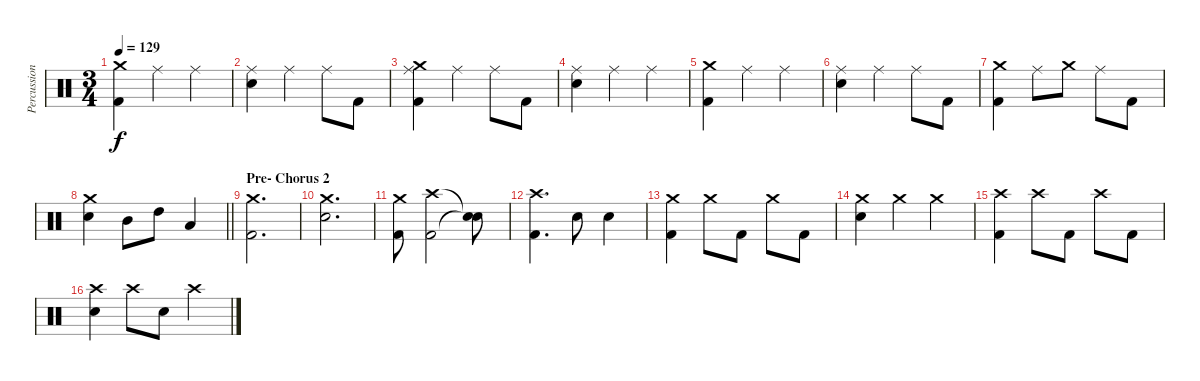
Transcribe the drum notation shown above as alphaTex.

\track ("Percussion" "Percussion") {instrument percussion}
\staff {score}
\articulation defaults
\ts (3 4)
\tempo 129
\clef neutral
\ks c
("Crash medium (hit)" "Kick (hit) 2").4{dy f} "Ride (middle)".4 "Ride (middle)".4 |
("Ride (middle)" "Electric Snare (hit)").4 "Ride (middle)".4 "Ride (middle)".8 "Kick (hit) 2".8 |
("Crash medium (hit)" "Ride (middle)" "Kick (hit) 2").4 "Ride (middle)".4 "Ride (middle)".8 "Kick (hit) 2".8 |
("Ride (middle)" "Electric Snare (hit)").4 "Ride (middle)".4 "Ride (middle)".4 |
("Crash medium (hit)" "Kick (hit) 2").4 "Ride (middle)".4 "Ride (middle)".4 |
("Ride (middle)" "Electric Snare (hit)").4 "Ride (middle)".4 "Ride (middle)".8 "Kick (hit) 2".8 |
("Crash medium (hit)" "Kick (hit) 2").4 "Ride (middle)".8 "Crash medium (hit)".8 "Ride (middle)".8 "Kick (hit) 2".8 |
\barLineRight lightlight
("Crash medium (hit)" "Electric Snare (hit)").4 "Mid Tom (hit)".8 "High Tom (hit)".8 "Low Tom (hit)".4 |
\section ("" "Pre- Chorus 2")
("Crash medium (hit)" "Kick (hit) 2").2{d} |
("Crash medium (hit)" "Electric Snare (hit)").2{d} |
("Crash medium (hit)" "Kick (hit) 2").8 ("Crash high (hit)" "Kick (hit) 2").2 ("Snare (hit)"{t} "Snare (hit)"{t}).8 |
("Crash high (hit)" "Kick (hit) 2").4{d} "Electric Snare (hit)".8 "Electric Snare (hit)".4 |
("Crash medium (hit)" "Kick (hit) 2").4 "Crash medium (hit)".8 "Kick (hit) 2".8 "Crash medium (hit)".8 "Kick (hit) 2".8 |
("Crash medium (hit)" "Electric Snare (hit)").4 "Crash medium (hit)".4 "Crash medium (hit)".4 |
("Crash high (hit)" "Kick (hit) 2").4 "Crash high (hit)".8 "Kick (hit) 2".8 "Crash high (hit)".8 "Kick (hit) 2".8 |
("Crash high (hit)" "Electric Snare (hit)").4 "Crash high (hit)".8 "Electric Snare (hit)".8 "Crash high (hit)".4
